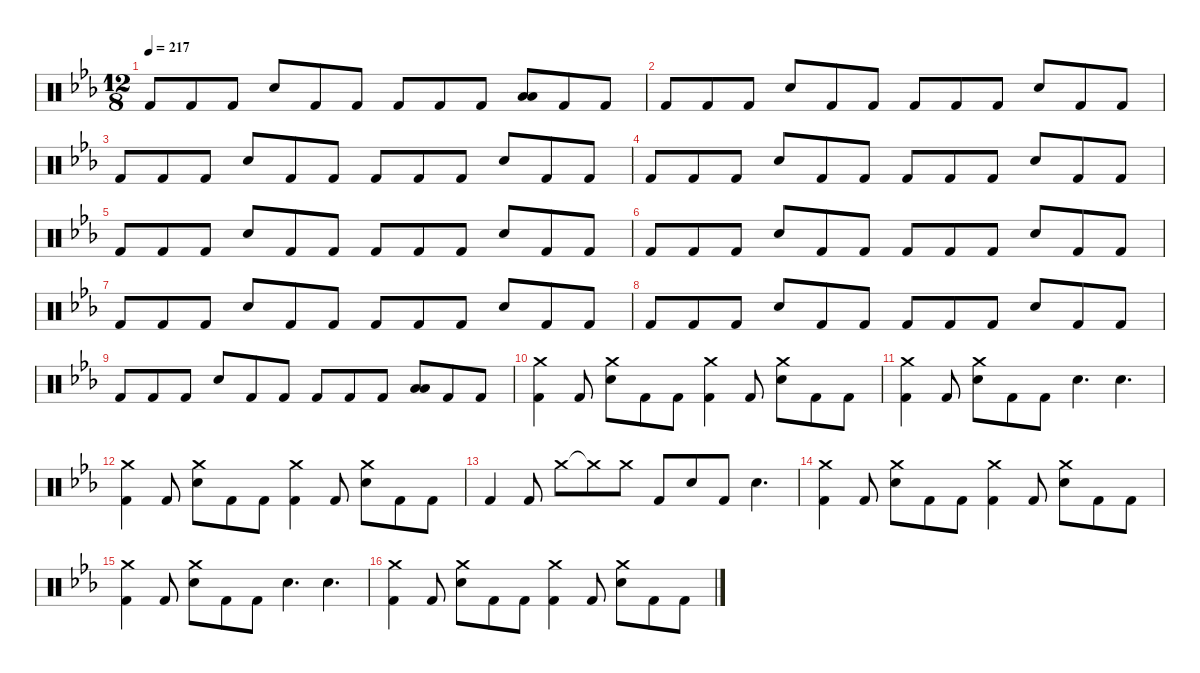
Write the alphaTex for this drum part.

\defaultSystemsLayout 4
\hideDynamics
\bracketExtendMode nobrackets
\singleTrackTrackNamePolicy hidden
\multiTrackTrackNamePolicy hidden
\firstSystemTrackNameMode fullname
\firstSystemTrackNameOrientation horizontal
\otherSystemsTrackNameOrientation horizontal
\track ("Beats" "drm.") {instrument percussion}
\staff {score}
\articulation defaults
\ts (12 8)
\tempo 217
\clef neutral
\ks eb "Kick (hit) 2"{acc forcenatural}.8{dy f beam Up} "Kick (hit) 2"{acc forcenatural}.8{beam Up} "Kick (hit) 2"{acc forcenatural}.8{beam Up} "Snare (hit) 2"{acc forcenatural}.8{beam Up} "Kick (hit) 2"{acc forcenatural}.8{beam Up} "Kick (hit) 2"{acc forcenatural}.8{beam Up} "Kick (hit) 2"{acc forcenatural}.8{beam Up} "Kick (hit) 2"{acc forcenatural}.8{beam Up} "Kick (hit) 2"{acc forcenatural}.8{beam Up}
("Low Tom (hit)"{acc forcenatural} "Low Tom (hit)"{acc forcenatural}).8{beam Up} "Kick (hit) 2"{acc forcenatural}.8{beam Up} "Kick (hit) 2"{acc forcenatural}.8{beam Up} |
"Kick (hit) 2"{acc forcenatural}.8{beam Up} "Kick (hit) 2"{acc forcenatural}.8{beam Up} "Kick (hit) 2"{acc forcenatural}.8{beam Up} "Snare (hit) 2"{acc forcenatural}.8{beam Up} "Kick (hit) 2"{acc forcenatural}.8{beam Up} "Kick (hit) 2"{acc forcenatural}.8{beam Up} "Kick (hit) 2"{acc forcenatural}.8{beam Up} "Kick (hit) 2"{acc forcenatural}.8{beam Up} "Kick (hit) 2"{acc forcenatural}.8{beam Up} "Snare (hit) 2"{acc forcenatural}.8{beam Up} "Kick (hit) 2"{acc forcenatural}.8{beam Up} "Kick (hit) 2"{acc forcenatural}.8{beam Up} |
"Kick (hit) 2"{acc forcenatural}.8{beam Up} "Kick (hit) 2"{acc forcenatural}.8{beam Up} "Kick (hit) 2"{acc forcenatural}.8{beam Up} "Snare (hit) 2"{acc forcenatural}.8{beam Up} "Kick (hit) 2"{acc forcenatural}.8{beam Up} "Kick (hit) 2"{acc forcenatural}.8{beam Up} "Kick (hit) 2"{acc forcenatural}.8{beam Up} "Kick (hit) 2"{acc forcenatural}.8{beam Up} "Kick (hit) 2"{acc forcenatural}.8{beam Up} "Snare (hit) 2"{acc forcenatural}.8{beam Up} "Kick (hit) 2"{acc forcenatural}.8{beam Up} "Kick (hit) 2"{acc forcenatural}.8{beam Up} |
"Kick (hit) 2"{acc forcenatural}.8{beam Up} "Kick (hit) 2"{acc forcenatural}.8{beam Up} "Kick (hit) 2"{acc forcenatural}.8{beam Up} "Snare (hit) 2"{acc forcenatural}.8{beam Up} "Kick (hit) 2"{acc forcenatural}.8{beam Up} "Kick (hit) 2"{acc forcenatural}.8{beam Up} "Kick (hit) 2"{acc forcenatural}.8{beam Up} "Kick (hit) 2"{acc forcenatural}.8{beam Up} "Kick (hit) 2"{acc forcenatural}.8{beam Up} "Snare (hit) 2"{acc forcenatural}.8{beam Up} "Kick (hit) 2"{acc forcenatural}.8{beam Up} "Kick (hit) 2"{acc forcenatural}.8{beam Up} |
"Kick (hit) 2"{acc forcenatural}.8{beam Up} "Kick (hit) 2"{acc forcenatural}.8{beam Up} "Kick (hit) 2"{acc forcenatural}.8{beam Up} "Snare (hit) 2"{acc forcenatural}.8{beam Up} "Kick (hit) 2"{acc forcenatural}.8{beam Up} "Kick (hit) 2"{acc forcenatural}.8{beam Up} "Kick (hit) 2"{acc forcenatural}.8{beam Up} "Kick (hit) 2"{acc forcenatural}.8{beam Up} "Kick (hit) 2"{acc forcenatural}.8{beam Up} "Snare (hit) 2"{acc forcenatural}.8{beam Up} "Kick (hit) 2"{acc forcenatural}.8{beam Up} "Kick (hit) 2"{acc forcenatural}.8{beam Up} |
"Kick (hit) 2"{acc forcenatural}.8{beam Up} "Kick (hit) 2"{acc forcenatural}.8{beam Up} "Kick (hit) 2"{acc forcenatural}.8{beam Up} "Snare (hit) 2"{acc forcenatural}.8{beam Up} "Kick (hit) 2"{acc forcenatural}.8{beam Up} "Kick (hit) 2"{acc forcenatural}.8{beam Up} "Kick (hit) 2"{acc forcenatural}.8{beam Up} "Kick (hit) 2"{acc forcenatural}.8{beam Up} "Kick (hit) 2"{acc forcenatural}.8{beam Up} "Snare (hit) 2"{acc forcenatural}.8{beam Up} "Kick (hit) 2"{acc forcenatural}.8{beam Up} "Kick (hit) 2"{acc forcenatural}.8{beam Up} |
"Kick (hit) 2"{acc forcenatural}.8{beam Up} "Kick (hit) 2"{acc forcenatural}.8{beam Up} "Kick (hit) 2"{acc forcenatural}.8{beam Up} "Snare (hit) 2"{acc forcenatural}.8{beam Up} "Kick (hit) 2"{acc forcenatural}.8{beam Up} "Kick (hit) 2"{acc forcenatural}.8{beam Up} "Kick (hit) 2"{acc forcenatural}.8{beam Up} "Kick (hit) 2"{acc forcenatural}.8{beam Up} "Kick (hit) 2"{acc forcenatural}.8{beam Up} "Snare (hit) 2"{acc forcenatural}.8{beam Up} "Kick (hit) 2"{acc forcenatural}.8{beam Up} "Kick (hit) 2"{acc forcenatural}.8{beam Up} |
"Kick (hit) 2"{acc forcenatural}.8{beam Up} "Kick (hit) 2"{acc forcenatural}.8{beam Up} "Kick (hit) 2"{acc forcenatural}.8{beam Up} "Snare (hit) 2"{acc forcenatural}.8{beam Up} "Kick (hit) 2"{acc forcenatural}.8{beam Up} "Kick (hit) 2"{acc forcenatural}.8{beam Up} "Kick (hit) 2"{acc forcenatural}.8{beam Up} "Kick (hit) 2"{acc forcenatural}.8{beam Up} "Kick (hit) 2"{acc forcenatural}.8{beam Up} "Snare (hit) 2"{acc forcenatural}.8{beam Up} "Kick (hit) 2"{acc forcenatural}.8{beam Up} "Kick (hit) 2"{acc forcenatural}.8{beam Up} |
"Kick (hit) 2"{acc forcenatural}.8{beam Up} "Kick (hit) 2"{acc forcenatural}.8{beam Up} "Kick (hit) 2"{acc forcenatural}.8{beam Up} "Snare (hit) 2"{acc forcenatural}.8{beam Up} "Kick (hit) 2"{acc forcenatural}.8{beam Up} "Kick (hit) 2"{acc forcenatural}.8{beam Up} "Kick (hit) 2"{acc forcenatural}.8{beam Up} "Kick (hit) 2"{acc forcenatural}.8{beam Up} "Kick (hit) 2"{acc forcenatural}.8{beam Up} ("Low Tom (hit)"{acc forcenatural} "Low Tom (hit)"{acc forcenatural}).8{beam Up} "Kick (hit) 2"{acc forcenatural}.8{beam Up} "Kick (hit) 2"{acc forcenatural}.8{beam Up} |
("Crash medium (hit)"{acc forcenatural} "Kick (hit) 2"{acc forcenatural}).4{beam Down} "Kick (hit) 2"{acc forcenatural}.8{beam Up} ("Crash medium (hit)"{acc forcenatural} "Snare (hit) 2"{acc forcenatural}).8{beam Down} "Kick (hit) 2"{acc forcenatural}.8{beam Down} "Kick (hit) 2"{acc forcenatural}.8{beam Down} ("Crash medium (hit)"{acc forcenatural} "Kick (hit) 2"{acc forcenatural}).4{beam Down} "Kick (hit) 2"{acc forcenatural}.8{beam Up} ("Crash medium (hit)"{acc forcenatural} "Snare (hit) 2"{acc forcenatural}).8{beam Down} "Kick (hit) 2"{acc forcenatural}.8{beam Down} "Kick (hit) 2"{acc forcenatural}.8{beam Down} |
("Crash medium (hit)"{acc forcenatural} "Kick (hit) 2"{acc forcenatural}).4{beam Down} "Kick (hit) 2"{acc forcenatural}.8{beam Up} ("Crash medium (hit)"{acc forcenatural} "Snare (hit) 2"{acc forcenatural}).8{beam Down} "Kick (hit) 2"{acc forcenatural}.8{beam Down} "Kick (hit) 2"{acc forcenatural}.8{beam Down} "Snare (hit) 2"{acc forcenatural}.4{d dy fff beam Down} "Snare (hit) 2"{acc forcenatural}.4{d beam Down} |
("Crash medium (hit)"{acc forcenatural} "Kick (hit) 2"{acc forcenatural}).4{dy f beam Down} "Kick (hit) 2"{acc forcenatural}.8{beam Up} ("Crash medium (hit)"{acc forcenatural} "Snare (hit) 2"{acc forcenatural}).8{beam Down} "Kick (hit) 2"{acc forcenatural}.8{beam Down} "Kick (hit) 2"{acc forcenatural}.8{beam Down} ("Crash medium (hit)"{acc forcenatural} "Kick (hit) 2"{acc forcenatural}).4{beam Down} "Kick (hit) 2"{acc forcenatural}.8{beam Up} ("Crash medium (hit)"{acc forcenatural} "Snare (hit) 2"{acc forcenatural}).8{beam Down} "Kick (hit) 2"{acc forcenatural}.8{beam Down} "Kick (hit) 2"{acc forcenatural}.8{beam Down} |
"Kick (hit) 2"{acc forcenatural}.4{beam Up} "Kick (hit) 2"{acc forcenatural}.8{beam Up} "Crash medium (hit)"{acc forcenatural}.8{beam Down} "Crash medium (hit)"{t acc forcenatural}.8{beam Down} "Crash medium (hit)"{acc forcenatural}.8{beam Down} "Kick (hit) 2"{acc forcenatural}.8{beam Up} "Snare (hit) 2"{acc forcenatural}.8{beam Up} "Kick (hit) 2"{acc forcenatural}.8{beam Up} "Snare (hit) 2"{acc forcenatural}.4{d beam Down} |
("Crash medium (hit)"{acc forcenatural} "Kick (hit) 2"{acc forcenatural}).4{beam Down} "Kick (hit) 2"{acc forcenatural}.8{beam Up} ("Crash medium (hit)"{acc forcenatural} "Snare (hit) 2"{acc forcenatural}).8{beam Down} "Kick (hit) 2"{acc forcenatural}.8{beam Down} "Kick (hit) 2"{acc forcenatural}.8{beam Down} ("Crash medium (hit)"{acc forcenatural} "Kick (hit) 2"{acc forcenatural}).4{beam Down} "Kick (hit) 2"{acc forcenatural}.8{beam Up} ("Crash medium (hit)"{acc forcenatural} "Snare (hit) 2"{acc forcenatural}).8{beam Down} "Kick (hit) 2"{acc forcenatural}.8{beam Down} "Kick (hit) 2"{acc forcenatural}.8{beam Down} |
("Crash medium (hit)"{acc forcenatural} "Kick (hit) 2"{acc forcenatural}).4{beam Down} "Kick (hit) 2"{acc forcenatural}.8{beam Up} ("Crash medium (hit)"{acc forcenatural} "Snare (hit) 2"{acc forcenatural}).8{beam Down} "Kick (hit) 2"{acc forcenatural}.8{beam Down} "Kick (hit) 2"{acc forcenatural}.8{beam Down} "Snare (hit) 2"{acc forcenatural}.4{d dy fff beam Down} "Snare (hit) 2"{acc forcenatural}.4{d beam Down} |
("Crash medium (hit)"{acc forcenatural} "Kick (hit) 2"{acc forcenatural}).4{dy f beam Down} "Kick (hit) 2"{acc forcenatural}.8{beam Up} ("Crash medium (hit)"{acc forcenatural} "Snare (hit) 2"{acc forcenatural}).8{beam Down} "Kick (hit) 2"{acc forcenatural}.8{beam Down} "Kick (hit) 2"{acc forcenatural}.8{beam Down} ("Crash medium (hit)"{acc forcenatural} "Kick (hit) 2"{acc forcenatural}).4{beam Down} "Kick (hit) 2"{acc forcenatural}.8{beam Up} ("Crash medium (hit)"{acc forcenatural} "Snare (hit) 2"{acc forcenatural}).8{beam Down} "Kick (hit) 2"{acc forcenatural}.8{beam Down} "Kick (hit) 2"{acc forcenatural}.8{beam Down}
